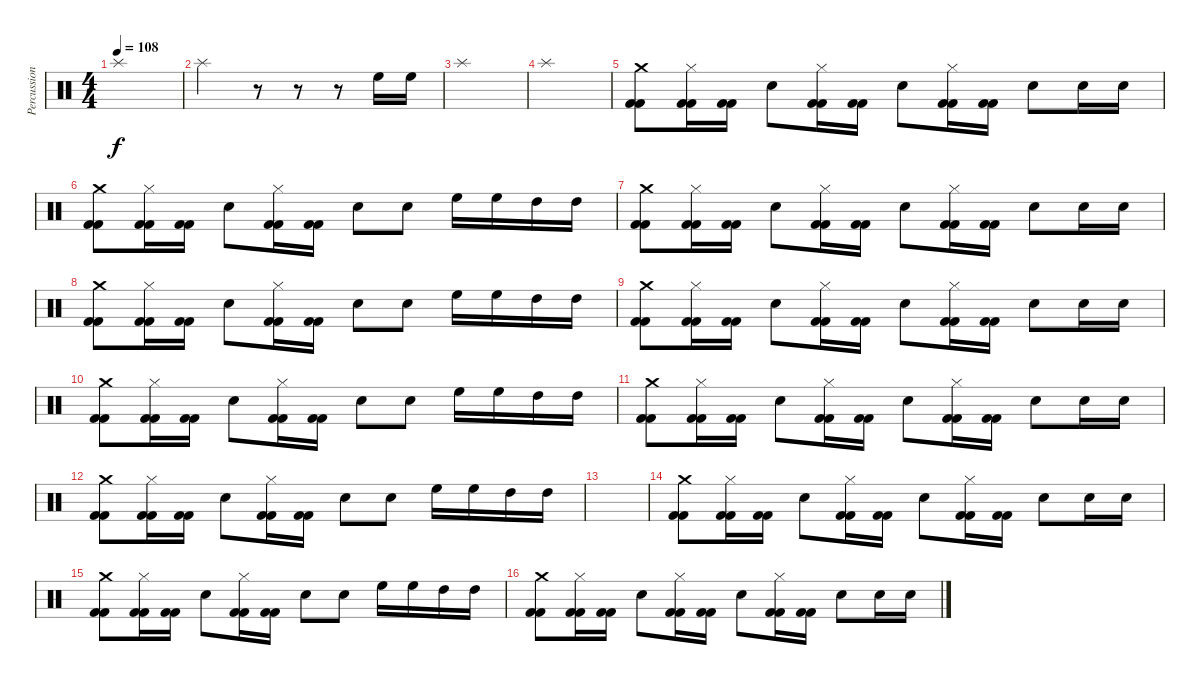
\track ("Percussion" "Percussion") {instrument percussion}
\staff {score}
\articulation defaults
\ts (4 4)
\tempo 108
\clef neutral
\ks c "Splash (hit)".1{dy f}
|
"Splash (hit)".2 r.8 r.8 r.8 "High Floor Tom (hit)".16 "High Floor Tom (hit)".16 |
"Splash (hit)".1 |
"Splash (hit)".1 |
("Crash medium (hit)" "Kick (hit) 2" "Kick (hit) 2").8 ("Hi-Hat (closed)" "Kick (hit) 2" "Kick (hit) 2").16 ("Kick (hit) 2" "Kick (hit) 2").16 "Electric Snare (hit)".8 ("Hi-Hat (closed)" "Kick (hit) 2" "Kick (hit) 2").16 ("Kick (hit) 2" "Kick (hit) 2").16 "Electric Snare (hit)".8 ("Hi-Hat (closed)" "Kick (hit) 2" "Kick (hit) 2").16 ("Kick (hit) 2" "Kick (hit) 2").16 "Electric Snare (hit)".8 "Electric Snare (hit)".16 "Electric Snare (hit)".16 |
("Crash medium (hit)" "Kick (hit) 2" "Kick (hit) 2").8 ("Hi-Hat (closed)" "Kick (hit) 2" "Kick (hit) 2").16 ("Kick (hit) 2" "Kick (hit) 2").16 "Electric Snare (hit)".8 ("Hi-Hat (closed)" "Kick (hit) 2" "Kick (hit) 2").16 ("Kick (hit) 2" "Kick (hit) 2").16 "Electric Snare (hit)".8 "Electric Snare (hit)".8 "High Floor Tom (hit)".16 "High Floor Tom (hit)".16 "High Tom (hit)".16 "High Tom (hit)".16 |
("Crash medium (hit)" "Kick (hit) 2" "Kick (hit) 2").8 ("Hi-Hat (closed)" "Kick (hit) 2" "Kick (hit) 2").16 ("Kick (hit) 2" "Kick (hit) 2").16 "Electric Snare (hit)".8 ("Hi-Hat (closed)" "Kick (hit) 2" "Kick (hit) 2").16 ("Kick (hit) 2" "Kick (hit) 2").16 "Electric Snare (hit)".8 ("Hi-Hat (closed)" "Kick (hit) 2" "Kick (hit) 2").16 ("Kick (hit) 2" "Kick (hit) 2").16 "Electric Snare (hit)".8 "Electric Snare (hit)".16 "Electric Snare (hit)".16 |
("Crash medium (hit)" "Kick (hit) 2" "Kick (hit) 2").8 ("Hi-Hat (closed)" "Kick (hit) 2" "Kick (hit) 2").16 ("Kick (hit) 2" "Kick (hit) 2").16 "Electric Snare (hit)".8 ("Hi-Hat (closed)" "Kick (hit) 2" "Kick (hit) 2").16 ("Kick (hit) 2" "Kick (hit) 2").16 "Electric Snare (hit)".8 "Electric Snare (hit)".8 "High Floor Tom (hit)".16 "High Floor Tom (hit)".16 "High Tom (hit)".16 "High Tom (hit)".16 |
("Crash medium (hit)" "Kick (hit) 2" "Kick (hit) 2").8 ("Hi-Hat (closed)" "Kick (hit) 2" "Kick (hit) 2").16 ("Kick (hit) 2" "Kick (hit) 2").16 "Electric Snare (hit)".8 ("Hi-Hat (closed)" "Kick (hit) 2" "Kick (hit) 2").16 ("Kick (hit) 2" "Kick (hit) 2").16 "Electric Snare (hit)".8 ("Hi-Hat (closed)" "Kick (hit) 2" "Kick (hit) 2").16 ("Kick (hit) 2" "Kick (hit) 2").16 "Electric Snare (hit)".8 "Electric Snare (hit)".16 "Electric Snare (hit)".16 |
("Crash medium (hit)" "Kick (hit) 2" "Kick (hit) 2").8 ("Hi-Hat (closed)" "Kick (hit) 2" "Kick (hit) 2").16 ("Kick (hit) 2" "Kick (hit) 2").16 "Electric Snare (hit)".8 ("Hi-Hat (closed)" "Kick (hit) 2" "Kick (hit) 2").16 ("Kick (hit) 2" "Kick (hit) 2").16 "Electric Snare (hit)".8 "Electric Snare (hit)".8 "High Floor Tom (hit)".16 "High Floor Tom (hit)".16 "High Tom (hit)".16 "High Tom (hit)".16 |
("Crash medium (hit)" "Kick (hit) 2" "Kick (hit) 2").8 ("Hi-Hat (closed)" "Kick (hit) 2" "Kick (hit) 2").16 ("Kick (hit) 2" "Kick (hit) 2").16 "Electric Snare (hit)".8 ("Hi-Hat (closed)" "Kick (hit) 2" "Kick (hit) 2").16 ("Kick (hit) 2" "Kick (hit) 2").16 "Electric Snare (hit)".8 ("Hi-Hat (closed)" "Kick (hit) 2" "Kick (hit) 2").16 ("Kick (hit) 2" "Kick (hit) 2").16 "Electric Snare (hit)".8 "Electric Snare (hit)".16 "Electric Snare (hit)".16 |
("Crash medium (hit)" "Kick (hit) 2" "Kick (hit) 2").8 ("Hi-Hat (closed)" "Kick (hit) 2" "Kick (hit) 2").16 ("Kick (hit) 2" "Kick (hit) 2").16 "Electric Snare (hit)".8 ("Hi-Hat (closed)" "Kick (hit) 2" "Kick (hit) 2").16 ("Kick (hit) 2" "Kick (hit) 2").16 "Electric Snare (hit)".8 "Electric Snare (hit)".8 "High Floor Tom (hit)".16 "High Floor Tom (hit)".16 "High Tom (hit)".16 "High Tom (hit)".16 |
|
("Crash medium (hit)" "Kick (hit) 2" "Kick (hit) 2").8 ("Hi-Hat (closed)" "Kick (hit) 2" "Kick (hit) 2").16 ("Kick (hit) 2" "Kick (hit) 2").16 "Electric Snare (hit)".8 ("Hi-Hat (closed)" "Kick (hit) 2" "Kick (hit) 2").16 ("Kick (hit) 2" "Kick (hit) 2").16 "Electric Snare (hit)".8 ("Hi-Hat (closed)" "Kick (hit) 2" "Kick (hit) 2").16 ("Kick (hit) 2" "Kick (hit) 2").16 "Electric Snare (hit)".8 "Electric Snare (hit)".16 "Electric Snare (hit)".16 |
("Crash medium (hit)" "Kick (hit) 2" "Kick (hit) 2").8 ("Hi-Hat (closed)" "Kick (hit) 2" "Kick (hit) 2").16 ("Kick (hit) 2" "Kick (hit) 2").16 "Electric Snare (hit)".8 ("Hi-Hat (closed)" "Kick (hit) 2" "Kick (hit) 2").16 ("Kick (hit) 2" "Kick (hit) 2").16 "Electric Snare (hit)".8 "Electric Snare (hit)".8 "High Floor Tom (hit)".16 "High Floor Tom (hit)".16 "High Tom (hit)".16 "High Tom (hit)".16 |
("Crash medium (hit)" "Kick (hit) 2" "Kick (hit) 2").8 ("Hi-Hat (closed)" "Kick (hit) 2" "Kick (hit) 2").16 ("Kick (hit) 2" "Kick (hit) 2").16 "Electric Snare (hit)".8 ("Hi-Hat (closed)" "Kick (hit) 2" "Kick (hit) 2").16 ("Kick (hit) 2" "Kick (hit) 2").16 "Electric Snare (hit)".8 ("Hi-Hat (closed)" "Kick (hit) 2" "Kick (hit) 2").16 ("Kick (hit) 2" "Kick (hit) 2").16 "Electric Snare (hit)".8 "Electric Snare (hit)".16 "Electric Snare (hit)".16
